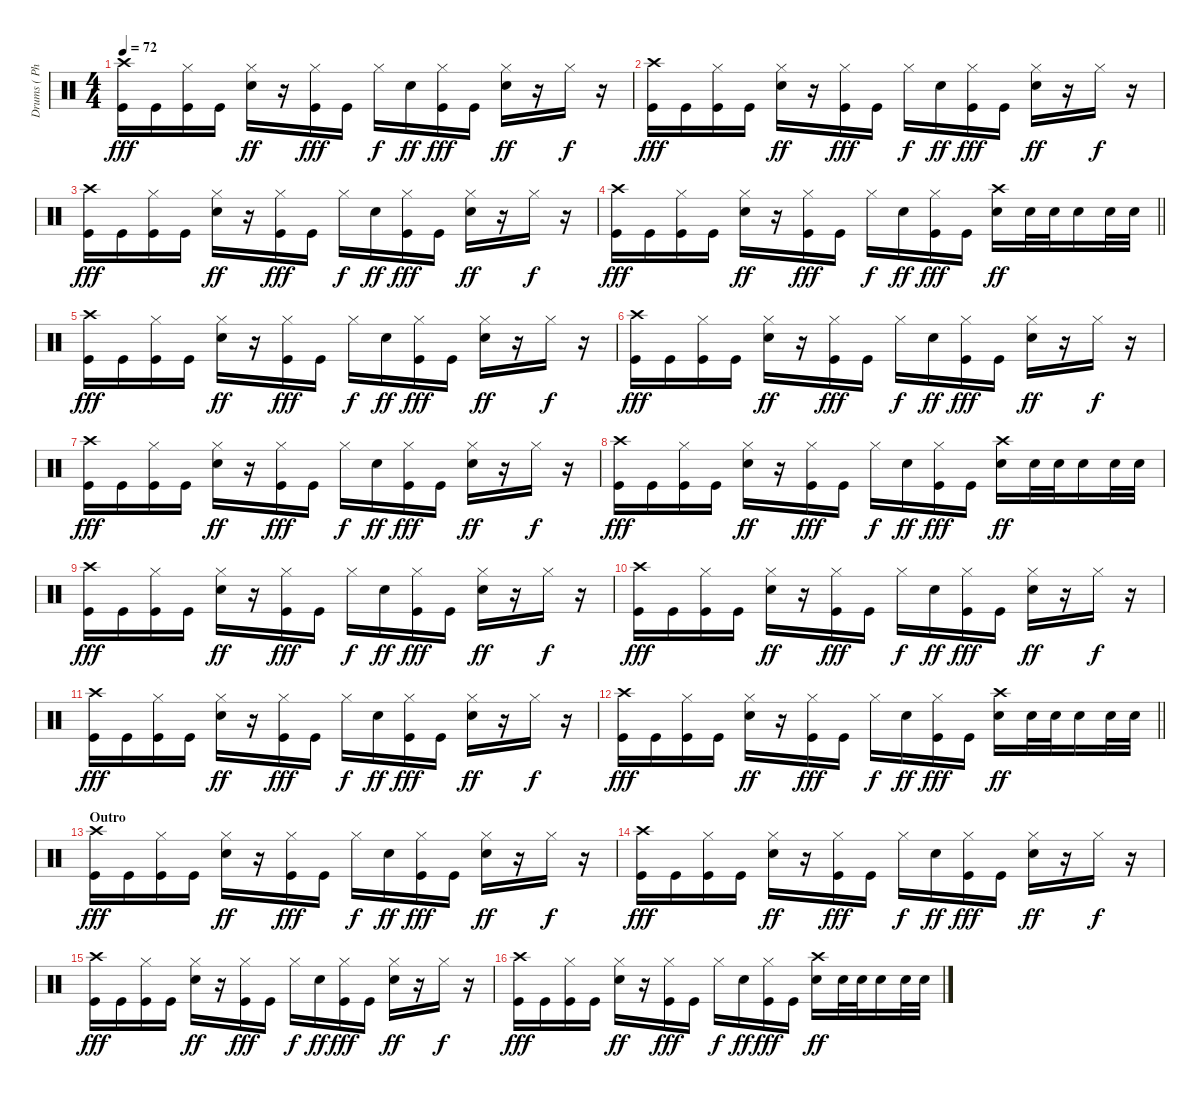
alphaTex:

\track ("Drums ( Phillip Selway )" "Drums ( Ph") {instrument percussion}
\staff {score}
\articulation defaults
\ts (4 4)
\tempo 72
\clef neutral
\ks c
("Crash high (hit)" "Kick (hit)").16{dy fff} "Kick (hit)".16 ("Hi-Hat (closed)" "Kick (hit)").16 "Kick (hit)".16 ("Hi-Hat (closed)" "Electric Snare (hit)").16{dy ff} r.16 ("Hi-Hat (closed)" "Kick (hit)").16{dy fff} "Kick (hit)".16 "Hi-Hat (closed)".16{dy f} "Electric Snare (hit)".16{dy ff} ("Hi-Hat (closed)" "Kick (hit)").16{dy fff} "Kick (hit)".16 ("Hi-Hat (closed)" "Electric Snare (hit)").16{dy ff} r.16 "Hi-Hat (closed)".16{dy f} r.16 |
("Crash high (hit)" "Kick (hit)").16{dy fff} "Kick (hit)".16 ("Hi-Hat (closed)" "Kick (hit)").16 "Kick (hit)".16 ("Hi-Hat (closed)" "Electric Snare (hit)").16{dy ff} r.16 ("Hi-Hat (closed)" "Kick (hit)").16{dy fff} "Kick (hit)".16 "Hi-Hat (closed)".16{dy f} "Electric Snare (hit)".16{dy ff} ("Hi-Hat (closed)" "Kick (hit)").16{dy fff} "Kick (hit)".16 ("Hi-Hat (closed)" "Electric Snare (hit)").16{dy ff} r.16 "Hi-Hat (closed)".16{dy f} r.16 |
("Crash high (hit)" "Kick (hit)").16{dy fff} "Kick (hit)".16 ("Hi-Hat (closed)" "Kick (hit)").16 "Kick (hit)".16 ("Hi-Hat (closed)" "Electric Snare (hit)").16{dy ff} r.16 ("Hi-Hat (closed)" "Kick (hit)").16{dy fff} "Kick (hit)".16 "Hi-Hat (closed)".16{dy f} "Electric Snare (hit)".16{dy ff} ("Hi-Hat (closed)" "Kick (hit)").16{dy fff} "Kick (hit)".16 ("Hi-Hat (closed)" "Electric Snare (hit)").16{dy ff} r.16 "Hi-Hat (closed)".16{dy f} r.16 |
\barLineRight lightlight
("Crash high (hit)" "Kick (hit)").16{dy fff} "Kick (hit)".16 ("Hi-Hat (closed)" "Kick (hit)").16 "Kick (hit)".16 ("Hi-Hat (closed)" "Electric Snare (hit)").16{dy ff} r.16 ("Hi-Hat (closed)" "Kick (hit)").16{dy fff} "Kick (hit)".16 "Hi-Hat (closed)".16{dy f} "Electric Snare (hit)".16{dy ff} ("Hi-Hat (closed)" "Kick (hit)").16{dy fff} "Kick (hit)".16 ("Crash high (hit)" "Electric Snare (hit)").16{dy ff} "Electric Snare (hit)".32 "Electric Snare (hit)".32 "Electric Snare (hit)".16 "Electric Snare (hit)".32 "Electric Snare (hit)".32 |
("Crash high (hit)" "Kick (hit)").16{dy fff} "Kick (hit)".16 ("Hi-Hat (closed)" "Kick (hit)").16 "Kick (hit)".16 ("Hi-Hat (closed)" "Electric Snare (hit)").16{dy ff} r.16 ("Hi-Hat (closed)" "Kick (hit)").16{dy fff} "Kick (hit)".16 "Hi-Hat (closed)".16{dy f} "Electric Snare (hit)".16{dy ff} ("Hi-Hat (closed)" "Kick (hit)").16{dy fff} "Kick (hit)".16 ("Hi-Hat (closed)" "Electric Snare (hit)").16{dy ff} r.16 "Hi-Hat (closed)".16{dy f} r.16 |
("Crash high (hit)" "Kick (hit)").16{dy fff} "Kick (hit)".16 ("Hi-Hat (closed)" "Kick (hit)").16 "Kick (hit)".16 ("Hi-Hat (closed)" "Electric Snare (hit)").16{dy ff} r.16 ("Hi-Hat (closed)" "Kick (hit)").16{dy fff} "Kick (hit)".16 "Hi-Hat (closed)".16{dy f} "Electric Snare (hit)".16{dy ff} ("Hi-Hat (closed)" "Kick (hit)").16{dy fff} "Kick (hit)".16 ("Hi-Hat (closed)" "Electric Snare (hit)").16{dy ff} r.16 "Hi-Hat (closed)".16{dy f} r.16 |
("Crash high (hit)" "Kick (hit)").16{dy fff} "Kick (hit)".16 ("Hi-Hat (closed)" "Kick (hit)").16 "Kick (hit)".16 ("Hi-Hat (closed)" "Electric Snare (hit)").16{dy ff} r.16 ("Hi-Hat (closed)" "Kick (hit)").16{dy fff} "Kick (hit)".16 "Hi-Hat (closed)".16{dy f} "Electric Snare (hit)".16{dy ff} ("Hi-Hat (closed)" "Kick (hit)").16{dy fff} "Kick (hit)".16 ("Hi-Hat (closed)" "Electric Snare (hit)").16{dy ff} r.16 "Hi-Hat (closed)".16{dy f} r.16 |
("Crash high (hit)" "Kick (hit)").16{dy fff} "Kick (hit)".16 ("Hi-Hat (closed)" "Kick (hit)").16 "Kick (hit)".16 ("Hi-Hat (closed)" "Electric Snare (hit)").16{dy ff} r.16 ("Hi-Hat (closed)" "Kick (hit)").16{dy fff} "Kick (hit)".16 "Hi-Hat (closed)".16{dy f} "Electric Snare (hit)".16{dy ff} ("Hi-Hat (closed)" "Kick (hit)").16{dy fff} "Kick (hit)".16 ("Crash high (hit)" "Electric Snare (hit)").16{dy ff} "Electric Snare (hit)".32 "Electric Snare (hit)".32 "Electric Snare (hit)".16 "Electric Snare (hit)".32 "Electric Snare (hit)".32 |
("Crash high (hit)" "Kick (hit)").16{dy fff} "Kick (hit)".16 ("Hi-Hat (closed)" "Kick (hit)").16 "Kick (hit)".16 ("Hi-Hat (closed)" "Electric Snare (hit)").16{dy ff} r.16 ("Hi-Hat (closed)" "Kick (hit)").16{dy fff} "Kick (hit)".16 "Hi-Hat (closed)".16{dy f} "Electric Snare (hit)".16{dy ff} ("Hi-Hat (closed)" "Kick (hit)").16{dy fff} "Kick (hit)".16 ("Hi-Hat (closed)" "Electric Snare (hit)").16{dy ff} r.16 "Hi-Hat (closed)".16{dy f} r.16 |
("Crash high (hit)" "Kick (hit)").16{dy fff} "Kick (hit)".16 ("Hi-Hat (closed)" "Kick (hit)").16 "Kick (hit)".16 ("Hi-Hat (closed)" "Electric Snare (hit)").16{dy ff} r.16 ("Hi-Hat (closed)" "Kick (hit)").16{dy fff} "Kick (hit)".16 "Hi-Hat (closed)".16{dy f} "Electric Snare (hit)".16{dy ff} ("Hi-Hat (closed)" "Kick (hit)").16{dy fff} "Kick (hit)".16 ("Hi-Hat (closed)" "Electric Snare (hit)").16{dy ff} r.16 "Hi-Hat (closed)".16{dy f} r.16 |
("Crash high (hit)" "Kick (hit)").16{dy fff} "Kick (hit)".16 ("Hi-Hat (closed)" "Kick (hit)").16 "Kick (hit)".16 ("Hi-Hat (closed)" "Electric Snare (hit)").16{dy ff} r.16 ("Hi-Hat (closed)" "Kick (hit)").16{dy fff} "Kick (hit)".16 "Hi-Hat (closed)".16{dy f} "Electric Snare (hit)".16{dy ff} ("Hi-Hat (closed)" "Kick (hit)").16{dy fff} "Kick (hit)".16 ("Hi-Hat (closed)" "Electric Snare (hit)").16{dy ff} r.16 "Hi-Hat (closed)".16{dy f} r.16 |
\barLineRight lightlight
("Crash high (hit)" "Kick (hit)").16{dy fff} "Kick (hit)".16 ("Hi-Hat (closed)" "Kick (hit)").16 "Kick (hit)".16 ("Hi-Hat (closed)" "Electric Snare (hit)").16{dy ff} r.16 ("Hi-Hat (closed)" "Kick (hit)").16{dy fff} "Kick (hit)".16 "Hi-Hat (closed)".16{dy f} "Electric Snare (hit)".16{dy ff} ("Hi-Hat (closed)" "Kick (hit)").16{dy fff} "Kick (hit)".16 ("Crash high (hit)" "Electric Snare (hit)").16{dy ff} "Electric Snare (hit)".32 "Electric Snare (hit)".32 "Electric Snare (hit)".16 "Electric Snare (hit)".32 "Electric Snare (hit)".32 |
\section ("" "Outro")
("Crash high (hit)" "Kick (hit)").16{dy fff} "Kick (hit)".16 ("Hi-Hat (closed)" "Kick (hit)").16 "Kick (hit)".16 ("Hi-Hat (closed)" "Electric Snare (hit)").16{dy ff} r.16 ("Hi-Hat (closed)" "Kick (hit)").16{dy fff} "Kick (hit)".16 "Hi-Hat (closed)".16{dy f} "Electric Snare (hit)".16{dy ff} ("Hi-Hat (closed)" "Kick (hit)").16{dy fff} "Kick (hit)".16 ("Hi-Hat (closed)" "Electric Snare (hit)").16{dy ff} r.16 "Hi-Hat (closed)".16{dy f} r.16 |
("Crash high (hit)" "Kick (hit)").16{dy fff} "Kick (hit)".16 ("Hi-Hat (closed)" "Kick (hit)").16 "Kick (hit)".16 ("Hi-Hat (closed)" "Electric Snare (hit)").16{dy ff} r.16 ("Hi-Hat (closed)" "Kick (hit)").16{dy fff} "Kick (hit)".16 "Hi-Hat (closed)".16{dy f} "Electric Snare (hit)".16{dy ff} ("Hi-Hat (closed)" "Kick (hit)").16{dy fff} "Kick (hit)".16 ("Hi-Hat (closed)" "Electric Snare (hit)").16{dy ff} r.16 "Hi-Hat (closed)".16{dy f} r.16 |
("Crash high (hit)" "Kick (hit)").16{dy fff} "Kick (hit)".16 ("Hi-Hat (closed)" "Kick (hit)").16 "Kick (hit)".16 ("Hi-Hat (closed)" "Electric Snare (hit)").16{dy ff} r.16 ("Hi-Hat (closed)" "Kick (hit)").16{dy fff} "Kick (hit)".16 "Hi-Hat (closed)".16{dy f} "Electric Snare (hit)".16{dy ff} ("Hi-Hat (closed)" "Kick (hit)").16{dy fff} "Kick (hit)".16 ("Hi-Hat (closed)" "Electric Snare (hit)").16{dy ff} r.16 "Hi-Hat (closed)".16{dy f} r.16 |
("Crash high (hit)" "Kick (hit)").16{dy fff} "Kick (hit)".16 ("Hi-Hat (closed)" "Kick (hit)").16 "Kick (hit)".16 ("Hi-Hat (closed)" "Electric Snare (hit)").16{dy ff} r.16 ("Hi-Hat (closed)" "Kick (hit)").16{dy fff} "Kick (hit)".16 "Hi-Hat (closed)".16{dy f} "Electric Snare (hit)".16{dy ff} ("Hi-Hat (closed)" "Kick (hit)").16{dy fff} "Kick (hit)".16 ("Crash high (hit)" "Electric Snare (hit)").16{dy ff} "Electric Snare (hit)".32 "Electric Snare (hit)".32 "Electric Snare (hit)".16 "Electric Snare (hit)".32 "Electric Snare (hit)".32
